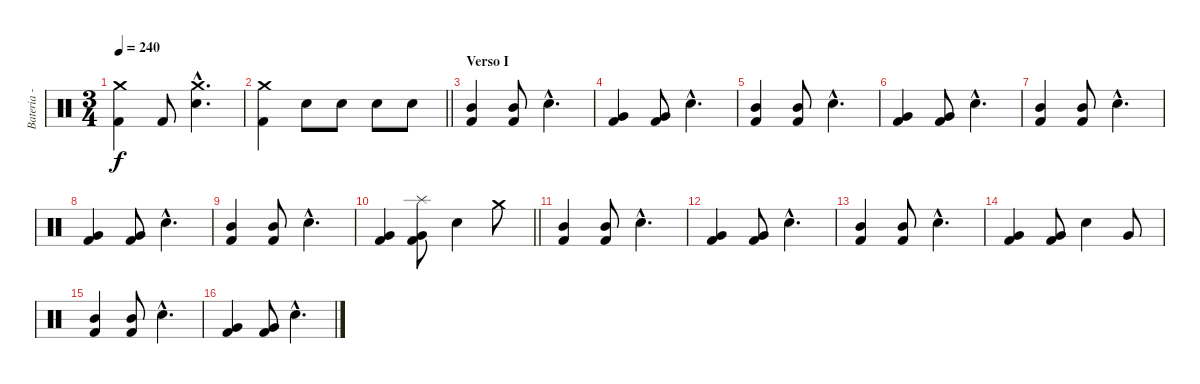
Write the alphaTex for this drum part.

\track ("Bateria - Larzon" "Bateria - ") {instrument percussion}
\staff {score}
\articulation defaults
\ts (3 4)
\tempo 240
\clef neutral
\ks c
("Kick (hit) 2" "Crash medium (hit)").4{dy f} "Kick (hit) 2".8 ("Snare (hit) 2"{hac} "Crash medium (hit)"{hac}).4{d} |
\barLineRight lightlight
("Kick (hit) 2" "Crash medium (hit)").4 "Snare (hit) 2".8 "Snare (hit) 2".8 "Snare (hit) 2".8 "Snare (hit) 2".8 |
\section ("" "Verso I")
("Kick (hit) 2" "Mid Tom (hit)").4 ("Kick (hit) 2" "Mid Tom (hit)").8 "Snare (hit) 2"{hac}.4{d} |
("Kick (hit) 2" "Very Low Tom (hit)").4 ("Kick (hit) 2" "Very Low Tom (hit)").8 "Snare (hit) 2"{hac}.4{d} |
("Kick (hit) 2" "Mid Tom (hit)").4 ("Kick (hit) 2" "Mid Tom (hit)").8 "Snare (hit) 2"{hac}.4{d} |
("Kick (hit) 2" "Very Low Tom (hit)").4 ("Kick (hit) 2" "Very Low Tom (hit)").8 "Snare (hit) 2"{hac}.4{d} |
("Kick (hit) 2" "Mid Tom (hit)").4 ("Kick (hit) 2" "Mid Tom (hit)").8 "Snare (hit) 2"{hac}.4{d} |
("Kick (hit) 2" "Very Low Tom (hit)").4 ("Kick (hit) 2" "Very Low Tom (hit)").8 "Snare (hit) 2"{hac}.4{d} |
("Kick (hit) 2" "Mid Tom (hit)").4 ("Kick (hit) 2" "Mid Tom (hit)").8 "Snare (hit) 2"{hac}.4{d} |
\barLineRight lightlight
("Kick (hit) 2" "Very Low Tom (hit)").4 ("Kick (hit) 2" "Very Low Tom (hit)" "Splash (hit)").8 "Snare (hit) 2".4 "Crash medium (hit)".8 |
("Kick (hit) 2" "Mid Tom (hit)").4 ("Kick (hit) 2" "Mid Tom (hit)").8 "Snare (hit) 2"{hac}.4{d} |
("Kick (hit) 2" "Very Low Tom (hit)").4 ("Kick (hit) 2" "Very Low Tom (hit)").8 "Snare (hit) 2"{hac}.4{d} |
("Kick (hit) 2" "Mid Tom (hit)").4 ("Kick (hit) 2" "Mid Tom (hit)").8 "Snare (hit) 2"{hac}.4{d} |
("Kick (hit) 2" "Very Low Tom (hit)").4 ("Kick (hit) 2" "Very Low Tom (hit)").8 "Snare (hit) 2".4 "Very Low Tom (hit)".8 |
("Kick (hit) 2" "Mid Tom (hit)").4 ("Kick (hit) 2" "Mid Tom (hit)").8 "Snare (hit) 2"{hac}.4{d} |
("Kick (hit) 2" "Very Low Tom (hit)").4 ("Kick (hit) 2" "Very Low Tom (hit)").8 "Snare (hit) 2"{hac}.4{d}
